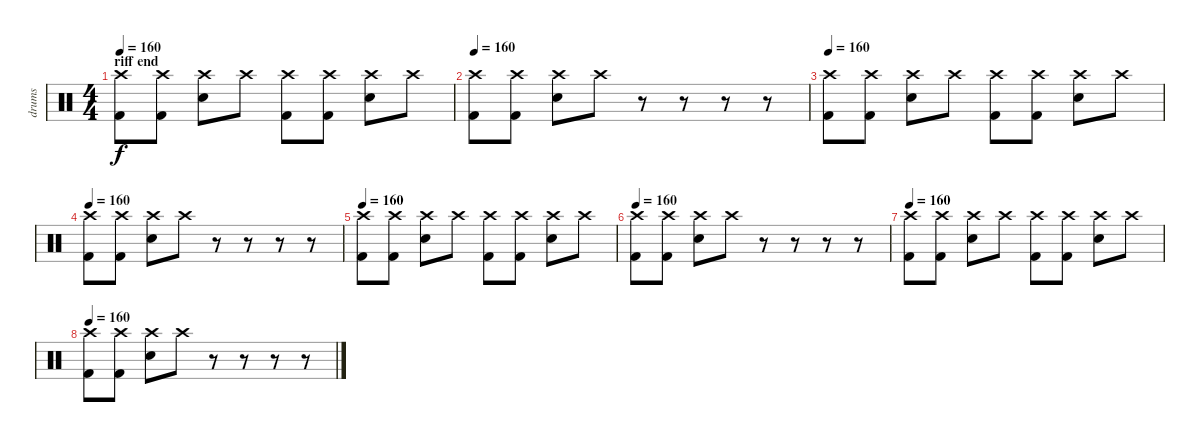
\track ("drums" "drums") {instrument percussion}
\staff {score}
\articulation defaults
\ts (4 4)
\section ("" "riff end")
\tempo 160
\clef neutral
\ks c
("Crash high (hit)" "Kick (hit) 2").8{dy f} ("Crash high (hit)" "Kick (hit) 2").8 ("Crash high (hit)" "Electric Snare (hit)").8 "Crash high (hit)".8 ("Crash high (hit)" "Kick (hit) 2").8 ("Crash high (hit)" "Kick (hit) 2").8 ("Crash high (hit)" "Electric Snare (hit)").8 "Crash high (hit)".8 |
\tempo 160
("Crash high (hit)" "Kick (hit) 2").8 ("Crash high (hit)" "Kick (hit) 2").8 ("Crash high (hit)" "Electric Snare (hit)").8 "Crash high (hit)".8 r.8 r.8 r.8 r.8 |
\tempo 160
("Crash high (hit)" "Kick (hit) 2").8 ("Crash high (hit)" "Kick (hit) 2").8 ("Crash high (hit)" "Electric Snare (hit)").8 "Crash high (hit)".8 ("Crash high (hit)" "Kick (hit) 2").8 ("Crash high (hit)" "Kick (hit) 2").8 ("Crash high (hit)" "Electric Snare (hit)").8 "Crash high (hit)".8 |
\tempo 160
("Crash high (hit)" "Kick (hit) 2").8 ("Crash high (hit)" "Kick (hit) 2").8 ("Crash high (hit)" "Electric Snare (hit)").8 "Crash high (hit)".8 r.8 r.8 r.8 r.8 |
\tempo 160
("Crash high (hit)" "Kick (hit) 2").8 ("Crash high (hit)" "Kick (hit) 2").8 ("Crash high (hit)" "Electric Snare (hit)").8 "Crash high (hit)".8 ("Crash high (hit)" "Kick (hit) 2").8 ("Crash high (hit)" "Kick (hit) 2").8 ("Crash high (hit)" "Electric Snare (hit)").8 "Crash high (hit)".8 |
\tempo 160
("Crash high (hit)" "Kick (hit) 2").8 ("Crash high (hit)" "Kick (hit) 2").8 ("Crash high (hit)" "Electric Snare (hit)").8 "Crash high (hit)".8 r.8 r.8 r.8 r.8 |
\tempo 160
("Crash high (hit)" "Kick (hit) 2").8 ("Crash high (hit)" "Kick (hit) 2").8 ("Crash high (hit)" "Electric Snare (hit)").8 "Crash high (hit)".8 ("Crash high (hit)" "Kick (hit) 2").8 ("Crash high (hit)" "Kick (hit) 2").8 ("Crash high (hit)" "Electric Snare (hit)").8 "Crash high (hit)".8 |
\tempo 160
("Crash high (hit)" "Kick (hit) 2").8 ("Crash high (hit)" "Kick (hit) 2").8 ("Crash high (hit)" "Electric Snare (hit)").8 "Crash high (hit)".8 r.8 r.8 r.8 r.8
